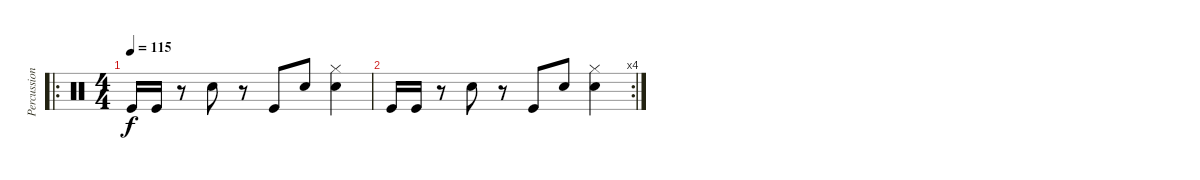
\track ("Percussions" "Percussion") {instrument percussion}
\staff {score}
\articulation defaults
\ro
\ts (4 4)
\tempo 115
\clef neutral
\ks c "Kick (hit)".16{dy f} "Kick (hit)".16
r.8 "Electric Snare (hit)".8 r.8 "Kick (hit)".8 "Electric Snare (hit)".8 ("Hi-Hat (closed)" "Electric Snare (hit)").4 |
\rc 4 "Kick (hit)".16 "Kick (hit)".16
r.8 "Electric Snare (hit)".8 r.8 "Kick (hit)".8 "Electric Snare (hit)".8 ("Hi-Hat (closed)" "Electric Snare (hit)").4
